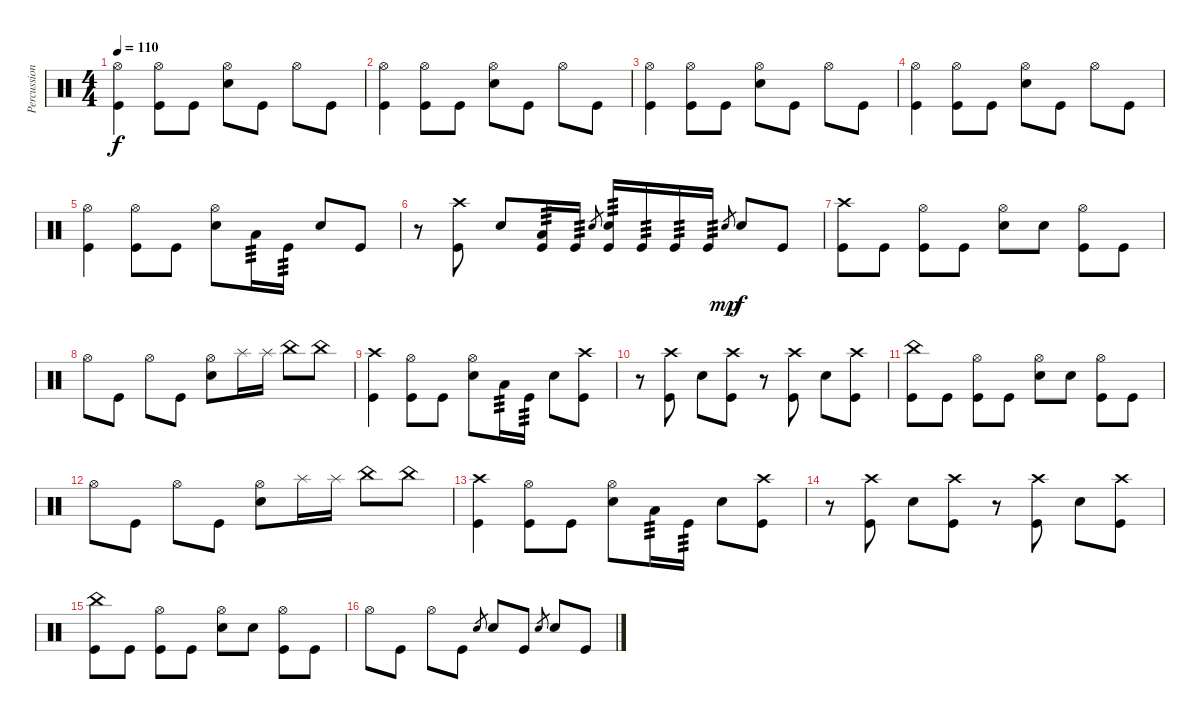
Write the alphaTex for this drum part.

\track ("Percussion" "Percussion") {instrument percussion}
\staff {score}
\articulation defaults
\ts (4 4)
\tempo 110
\clef neutral
\ks c
("Hi-Hat (open)" "Kick (hit)").4{dy f} ("Hi-Hat (open)" "Kick (hit)").8 "Kick (hit)".8 ("Hi-Hat (open)" "Electric Snare (hit)").8 "Kick (hit)".8 "Hi-Hat (open)".8 "Kick (hit)".8 |
("Hi-Hat (open)" "Kick (hit)").4 ("Hi-Hat (open)" "Kick (hit)").8 "Kick (hit)".8 ("Hi-Hat (open)" "Electric Snare (hit)").8 "Kick (hit)".8 "Hi-Hat (open)".8 "Kick (hit)".8 |
("Hi-Hat (open)" "Kick (hit)").4 ("Hi-Hat (open)" "Kick (hit)").8 "Kick (hit)".8 ("Hi-Hat (open)" "Electric Snare (hit)").8 "Kick (hit)".8 "Hi-Hat (open)".8 "Kick (hit)".8 |
("Hi-Hat (open)" "Kick (hit)").4 ("Hi-Hat (open)" "Kick (hit)").8 "Kick (hit)".8 ("Hi-Hat (open)" "Electric Snare (hit)").8 "Kick (hit)".8 "Hi-Hat (open)".8 "Kick (hit)".8 |
("Hi-Hat (open)" "Kick (hit)").4 ("Hi-Hat (open)" "Kick (hit)").8 "Kick (hit)".8 ("Hi-Hat (open)" "Electric Snare (hit)").8 "Low Floor Tom (hit)".16{tp 3} "Kick (hit)".16{tp 3} "Electric Snare (hit)".8 "Kick (hit)".8 |
r.8 ("Crash high (hit)" "Kick (hit)").8 "Electric Snare (hit)".8 ("Low Floor Tom (hit)" "Kick (hit)").16{tp 3} "Kick (hit)".16{tp 3} "Electric Snare (hit)".8{gr} ("Electric Snare (hit)" "Kick (hit)").16{tp 3} "Kick (hit)".16{tp 3} "Kick (hit)".16{tp 3} "Kick (hit)".16{tp 3} "Electric Snare (hit)".8{gr dy mp} "Electric Snare (hit)".8{dy f} "Kick (hit)".8 |
("Crash high (hit)" "Kick (hit)").8 "Kick (hit)".8 ("Hi-Hat (open)" "Kick (hit)").8 "Kick (hit)".8 ("Hi-Hat (open)" "Electric Snare (hit)").8 "Electric Snare (hit)".8 ("Hi-Hat (open)" "Kick (hit)").8 "Kick (hit)".8 |
"Hi-Hat (open)".8 "Kick (hit)".8 "Hi-Hat (open)".8 "Kick (hit)".8 ("Hi-Hat (open)" "Electric Snare (hit)").8 "Splash (hit)".16 "Splash (hit)".16 "China (hit)".8 "China (hit)".8 |
("Crash high (hit)" "Kick (hit)").4 ("Hi-Hat (open)" "Kick (hit)").8 "Kick (hit)".8 ("Hi-Hat (open)" "Electric Snare (hit)").8 "Low Floor Tom (hit)".16{tp 3} "Kick (hit)".16{tp 3} "Electric Snare (hit)".8 ("Crash high (hit)" "Kick (hit)").8 |
r.8 ("Crash high (hit)" "Kick (hit)").8 "Electric Snare (hit)".8 ("Crash high (hit)" "Kick (hit)").8 r.8 ("Crash high (hit)" "Kick (hit)").8 "Electric Snare (hit)".8 ("Crash high (hit)" "Kick (hit)").8 |
("China (hit)" "Kick (hit)").8 "Kick (hit)".8 ("Hi-Hat (open)" "Kick (hit)").8 "Kick (hit)".8 ("Hi-Hat (open)" "Electric Snare (hit)").8 "Electric Snare (hit)".8 ("Hi-Hat (open)" "Kick (hit)").8 "Kick (hit)".8 |
"Hi-Hat (open)".8 "Kick (hit)".8 "Hi-Hat (open)".8 "Kick (hit)".8 ("Hi-Hat (open)" "Electric Snare (hit)").8 "Splash (hit)".16 "Splash (hit)".16 "China (hit)".8 "China (hit)".8 |
("Crash high (hit)" "Kick (hit)").4 ("Hi-Hat (open)" "Kick (hit)").8 "Kick (hit)".8 ("Hi-Hat (open)" "Electric Snare (hit)").8 "Low Floor Tom (hit)".16{tp 3} "Kick (hit)".16{tp 3} "Electric Snare (hit)".8 ("Crash high (hit)" "Kick (hit)").8 |
r.8 ("Crash high (hit)" "Kick (hit)").8 "Electric Snare (hit)".8 ("Crash high (hit)" "Kick (hit)").8 r.8 ("Crash high (hit)" "Kick (hit)").8 "Electric Snare (hit)".8 ("Crash high (hit)" "Kick (hit)").8 |
("China (hit)" "Kick (hit)").8 "Kick (hit)".8 ("Hi-Hat (open)" "Kick (hit)").8 "Kick (hit)".8 ("Hi-Hat (open)" "Electric Snare (hit)").8 "Electric Snare (hit)".8 ("Hi-Hat (open)" "Kick (hit)").8 "Kick (hit)".8 |
"Hi-Hat (open)".8 "Kick (hit)".8 "Hi-Hat (open)".8 "Kick (hit)".8 "Electric Snare (hit)".8{gr} "Electric Snare (hit)".8 "Kick (hit)".8 "Electric Snare (hit)".8{gr} "Electric Snare (hit)".8 "Kick (hit)".8
